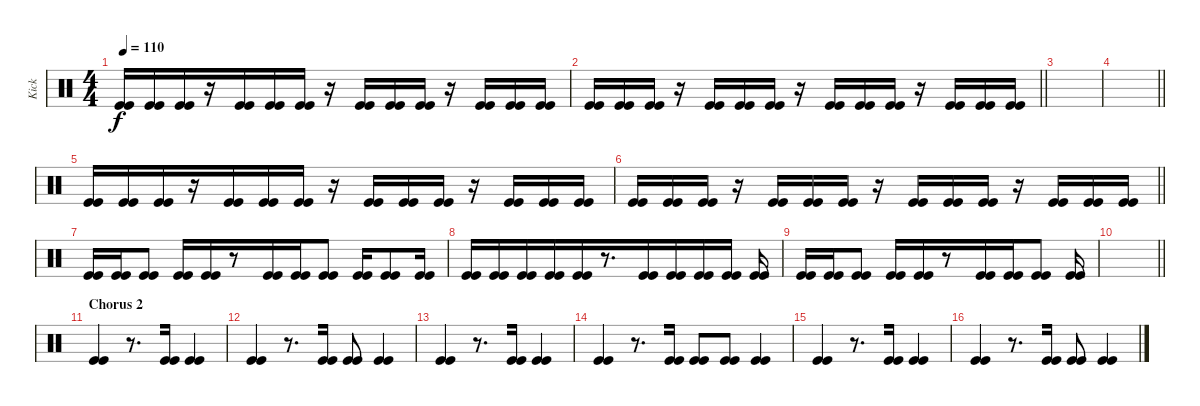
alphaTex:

\track ("Kick" "Kick") {instrument percussion}
\staff {score}
\articulation defaults
\ts (4 4)
\tempo 110
\clef neutral
\ks c
("Kick (hit)" "Kick (hit)").16{dy f} ("Kick (hit)" "Kick (hit)").16 ("Kick (hit)" "Kick (hit)").16{beam merge} r.16 ("Kick (hit)" "Kick (hit)").16 ("Kick (hit)" "Kick (hit)").16 ("Kick (hit)" "Kick (hit)").16 r.16 ("Kick (hit)" "Kick (hit)").16{beam merge} ("Kick (hit)" "Kick (hit)").16 ("Kick (hit)" "Kick (hit)").16 r.16{beam merge} ("Kick (hit)" "Kick (hit)").16{beam merge} ("Kick (hit)" "Kick (hit)").16 ("Kick (hit)" "Kick (hit)").16 |
\barLineRight lightlight
("Kick (hit)" "Kick (hit)").16{beam merge} ("Kick (hit)" "Kick (hit)").16{beam merge} ("Kick (hit)" "Kick (hit)").16 r.16 ("Kick (hit)" "Kick (hit)").16 ("Kick (hit)" "Kick (hit)").16{beam merge} ("Kick (hit)" "Kick (hit)").16 r.16 ("Kick (hit)" "Kick (hit)").16 ("Kick (hit)" "Kick (hit)").16{beam merge} ("Kick (hit)" "Kick (hit)").16 r.16 ("Kick (hit)" "Kick (hit)").16 ("Kick (hit)" "Kick (hit)").16{beam merge} ("Kick (hit)" "Kick (hit)").16 |
|
\barLineRight lightlight
|
("Kick (hit)" "Kick (hit)").16 ("Kick (hit)" "Kick (hit)").16 ("Kick (hit)" "Kick (hit)").16{beam merge} r.16 ("Kick (hit)" "Kick (hit)").16 ("Kick (hit)" "Kick (hit)").16 ("Kick (hit)" "Kick (hit)").16 r.16 ("Kick (hit)" "Kick (hit)").16{beam merge} ("Kick (hit)" "Kick (hit)").16 ("Kick (hit)" "Kick (hit)").16 r.16{beam merge} ("Kick (hit)" "Kick (hit)").16{beam merge} ("Kick (hit)" "Kick (hit)").16 ("Kick (hit)" "Kick (hit)").16 |
\barLineRight lightlight
("Kick (hit)" "Kick (hit)").16{beam merge} ("Kick (hit)" "Kick (hit)").16{beam merge} ("Kick (hit)" "Kick (hit)").16 r.16 ("Kick (hit)" "Kick (hit)").16 ("Kick (hit)" "Kick (hit)").16{beam merge} ("Kick (hit)" "Kick (hit)").16 r.16 ("Kick (hit)" "Kick (hit)").16 ("Kick (hit)" "Kick (hit)").16{beam merge} ("Kick (hit)" "Kick (hit)").16 r.16 ("Kick (hit)" "Kick (hit)").16 ("Kick (hit)" "Kick (hit)").16{beam merge} ("Kick (hit)" "Kick (hit)").16 |
("Kick (hit)" "Kick (hit)").16 ("Kick (hit)" "Kick (hit)").16 ("Kick (hit)" "Kick (hit)").8 ("Kick (hit)" "Kick (hit)").16 ("Kick (hit)" "Kick (hit)").16{beam merge} r.8 ("Kick (hit)" "Kick (hit)").16 ("Kick (hit)" "Kick (hit)").16 ("Kick (hit)" "Kick (hit)").8 ("Kick (hit)" "Kick (hit)").16{beam merge} ("Kick (hit)" "Kick (hit)").8{beam merge} ("Kick (hit)" "Kick (hit)").16 |
("Kick (hit)" "Kick (hit)").16 ("Kick (hit)" "Kick (hit)").16{beam merge} ("Kick (hit)" "Kick (hit)").16 ("Kick (hit)" "Kick (hit)").16{beam merge} ("Kick (hit)" "Kick (hit)").16{beam merge} r.8{d} ("Kick (hit)" "Kick (hit)").16{beam merge} ("Kick (hit)" "Kick (hit)").16{beam merge} ("Kick (hit)" "Kick (hit)").16 ("Kick (hit)" "Kick (hit)").16 ("Kick (hit)" "Kick (hit)").16 |
("Kick (hit)" "Kick (hit)").16 ("Kick (hit)" "Kick (hit)").16 ("Kick (hit)" "Kick (hit)").8 ("Kick (hit)" "Kick (hit)").16 ("Kick (hit)" "Kick (hit)").16{beam merge} r.8 ("Kick (hit)" "Kick (hit)").16 ("Kick (hit)" "Kick (hit)").16 ("Kick (hit)" "Kick (hit)").8 ("Kick (hit)" "Kick (hit)").16 |
\barLineRight lightlight
|
\section ("" "Chorus 2")
("Kick (hit)" "Kick (hit)").4{beam merge} r.8{d} ("Kick (hit)" "Kick (hit)").16 ("Kick (hit)" "Kick (hit)").4 |
("Kick (hit)" "Kick (hit)").4{beam merge} r.8{d} ("Kick (hit)" "Kick (hit)").16 ("Kick (hit)" "Kick (hit)").8 ("Kick (hit)" "Kick (hit)").4 |
("Kick (hit)" "Kick (hit)").4{beam merge} r.8{d} ("Kick (hit)" "Kick (hit)").16 ("Kick (hit)" "Kick (hit)").4 |
("Kick (hit)" "Kick (hit)").4{beam merge} r.8{d} ("Kick (hit)" "Kick (hit)").16 ("Kick (hit)" "Kick (hit)").8 ("Kick (hit)" "Kick (hit)").8{beam merge} ("Kick (hit)" "Kick (hit)").4 |
("Kick (hit)" "Kick (hit)").4{beam merge} r.8{d} ("Kick (hit)" "Kick (hit)").16 ("Kick (hit)" "Kick (hit)").4 |
("Kick (hit)" "Kick (hit)").4{beam merge} r.8{d} ("Kick (hit)" "Kick (hit)").16 ("Kick (hit)" "Kick (hit)").8 ("Kick (hit)" "Kick (hit)").4
